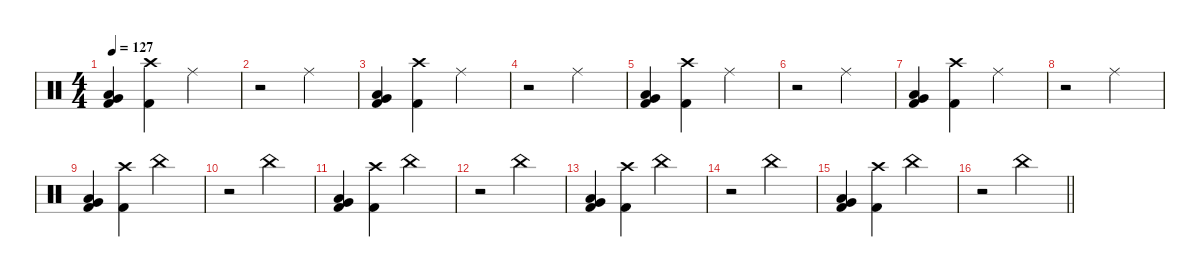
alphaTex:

\defaultSystemsLayout 4
\hideDynamics
\bracketExtendMode nobrackets
\singleTrackTrackNamePolicy hidden
\multiTrackTrackNamePolicy hidden
\otherSystemsTrackNameOrientation horizontal
\track ("Gene Hoglan" "drm.") {instrument percussion}
\staff {score}
\articulation defaults
\ts (4 4)
\beaming (8 2 2 2 2)
\tempo 127
\clef neutral
\ks c
("Very Low Tom (hit)" "Low Floor Tom (hit)" "Kick (hit) 2").4{dy f beam Up} ("Crash high (hit)" "Kick (hit) 2").4{beam Down} "Ride (middle)".2{beam Down} |
r.2{beam Down} "Ride (middle)".2{beam Down} |
("Very Low Tom (hit)" "Low Floor Tom (hit)" "Kick (hit) 2").4{beam Up} ("Crash high (hit)" "Kick (hit) 2").4{beam Down} "Ride (middle)".2{beam Down} |
r.2{beam Down} "Ride (middle)".2{beam Down} |
("Very Low Tom (hit)" "Low Floor Tom (hit)" "Kick (hit) 2").4{beam Up} ("Crash high (hit)" "Kick (hit) 2").4{beam Down} "Ride (middle)".2{beam Down} |
r.2{beam Down} "Ride (middle)".2{beam Down} |
("Very Low Tom (hit)" "Low Floor Tom (hit)" "Kick (hit) 2").4{beam Up} ("Crash high (hit)" "Kick (hit) 2").4{beam Down} "Ride (middle)".2{beam Down} |
r.2{beam Down} "Ride (middle)".2{beam Down} |
("Very Low Tom (hit)" "Low Floor Tom (hit)" "Kick (hit) 2").4{beam Up} ("Crash high (hit)" "Kick (hit) 2").4{beam Down} "China (hit)".2{beam Down} |
r.2{beam Down} "China (hit)".2{beam Down} |
("Very Low Tom (hit)" "Low Floor Tom (hit)" "Kick (hit) 2").4{beam Up} ("Crash high (hit)" "Kick (hit) 2").4{beam Down} "China (hit)".2{beam Down} |
r.2{beam Down} "China (hit)".2{beam Down} |
("Very Low Tom (hit)" "Low Floor Tom (hit)" "Kick (hit) 2").4{beam Up} ("Crash high (hit)" "Kick (hit) 2").4{beam Down} "China (hit)".2{beam Down} |
r.2{beam Down} "China (hit)".2{beam Down} |
("Very Low Tom (hit)" "Low Floor Tom (hit)" "Kick (hit) 2").4{beam Up} ("Crash high (hit)" "Kick (hit) 2").4{beam Down} "China (hit)".2{beam Down} |
\barLineRight lightlight
r.2{beam Down} "China (hit)".2{beam Down}
